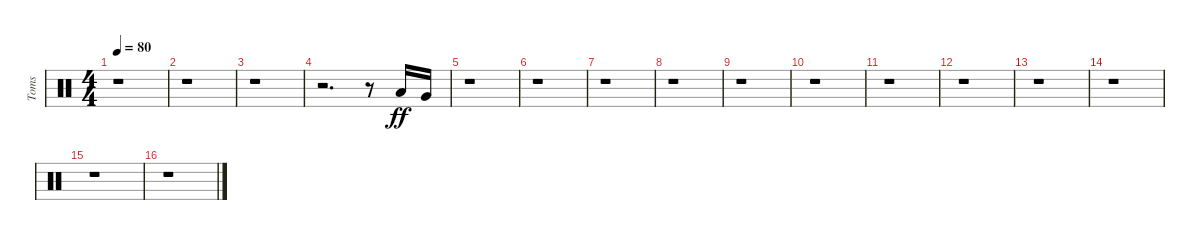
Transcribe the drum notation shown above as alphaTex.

\track ("Toms" "Toms") {instrument percussion}
\staff {score}
\articulation defaults
\ts (4 4)
\tempo 80
\clef neutral
\ks c
r.1{dy ff} |
r.1 |
r.1 |
r.2{d} r.8 "Low Tom (hit)".16 "Very Low Tom (hit)".16 |
r.1 |
r.1 |
r.1 |
r.1 |
r.1 |
r.1 |
r.1 |
r.1 |
r.1 |
r.1 |
r.1 |
r.1
